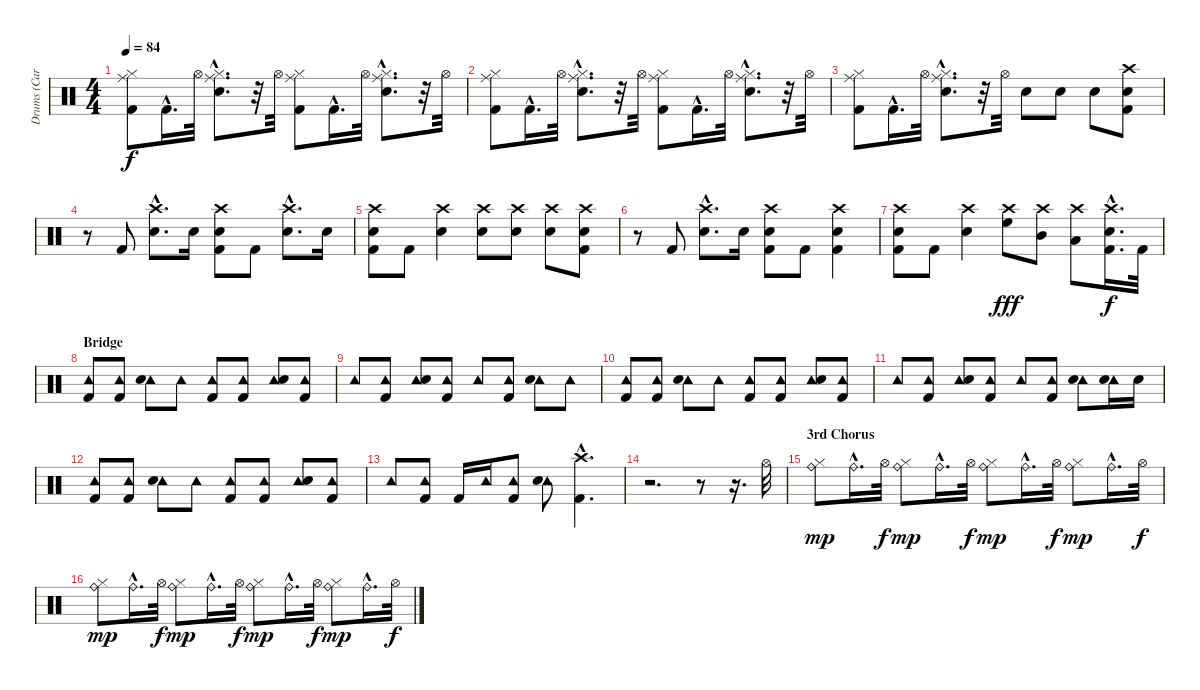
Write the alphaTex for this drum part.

\track ("Drums (Carter Beauford)" "Drums (Car") {instrument percussion}
\staff {score}
\articulation defaults
\ts (4 4)
\tempo 84
\clef neutral
\ks c
("Ride (middle)" "Hi-Hat (closed)" "Kick (hit) 2").8{dy f} "Kick (hit) 2"{hac}.16{d} "Hi-Hat (open)".32 ("Ride (middle)"{hac} "Hi-Hat (closed)"{hac} "Snare (hit) 2"{hac}).8{d} r.32 "Hi-Hat (open)".32 ("Ride (middle)" "Hi-Hat (closed)" "Kick (hit) 2").8 "Kick (hit) 2"{hac}.16{d} "Hi-Hat (open)".32 ("Ride (middle)"{hac} "Hi-Hat (closed)"{hac} "Snare (hit) 2"{hac}).8{d} r.32 "Hi-Hat (open)".32 |
("Ride (middle)" "Hi-Hat (closed)" "Kick (hit) 2").8 "Kick (hit) 2"{hac}.16{d} "Hi-Hat (open)".32 ("Ride (middle)"{hac} "Hi-Hat (closed)"{hac} "Snare (hit) 2"{hac}).8{d} r.32 "Hi-Hat (open)".32 ("Ride (middle)" "Hi-Hat (closed)" "Kick (hit) 2").8 "Kick (hit) 2"{hac}.16{d} "Hi-Hat (open)".32 ("Ride (middle)"{hac} "Hi-Hat (closed)"{hac} "Snare (hit) 2"{hac}).8{d} r.32 "Hi-Hat (open)".32 |
("Ride (middle)" "Hi-Hat (closed)" "Kick (hit) 2").8 "Kick (hit) 2"{hac}.16{d} "Hi-Hat (open)".32 ("Ride (middle)"{hac} "Hi-Hat (closed)"{hac} "Snare (hit) 2"{hac}).8{d} r.32 "Hi-Hat (open)".32 "Snare (hit) 2".8 "Snare (hit) 2".8 "Snare (hit) 2".8 ("Crash high (hit)" "Snare (hit) 2" "Kick (hit) 2").8 |
r.8 "Kick (hit) 2".8 ("Crash high (hit)"{hac} "Snare (hit) 2"{hac}).8{d} "Snare (hit) 2".16 ("Crash high (hit)" "Snare (hit) 2" "Kick (hit) 2").8 "Kick (hit) 2".8 ("Crash high (hit)"{hac} "Snare (hit) 2"{hac}).8{d} "Snare (hit) 2".16 |
("Crash high (hit)" "Snare (hit) 2" "Kick (hit) 2").8 "Kick (hit) 2".8 ("Crash high (hit)" "Snare (hit) 2").4 ("Crash high (hit)" "Snare (hit) 2").8 ("Crash high (hit)" "Snare (hit) 2").8 ("Crash high (hit)" "Snare (hit) 2").8 ("Crash high (hit)" "Snare (hit) 2" "Kick (hit) 2").8 |
r.8 "Kick (hit) 2".8 ("Crash high (hit)"{hac} "Snare (hit) 2"{hac}).8{d} "Snare (hit) 2".16 ("Crash high (hit)" "Snare (hit) 2" "Kick (hit) 2").8 "Kick (hit) 2".8 ("Crash high (hit)" "Snare (hit) 2" "Kick (hit) 2").4 |
("Crash high (hit)" "Snare (hit) 2" "Kick (hit) 2").8 "Kick (hit) 2".8 ("Crash high (hit)" "Snare (hit) 2").4 ("Crash high (hit)" "High Floor Tom (hit)").8{dy fff} ("Crash high (hit)" "Mid Tom (hit)").8 ("Crash high (hit)" "Low Tom (hit)").8 ("Crash high (hit)"{hac} "Snare (hit) 2"{hac} "Kick (hit) 2"{hac}).16{d dy f} "Kick (hit) 2".32 |
\section ("" "Bridge")
("Tambourine (hit)" "Kick (hit) 2").8 ("Tambourine (hit)" "Kick (hit) 2").8 ("Tambourine (hit)" "Snare (hit) 2").8 "Tambourine (hit)".8 ("Tambourine (hit)" "Kick (hit) 2").8 ("Tambourine (hit)" "Kick (hit) 2").8 ("Tambourine (hit)" "Snare (hit) 2").8 ("Tambourine (hit)" "Kick (hit) 2").8 |
"Tambourine (hit)".8 ("Tambourine (hit)" "Kick (hit) 2").8 ("Tambourine (hit)" "Snare (hit) 2").8 ("Tambourine (hit)" "Kick (hit) 2").8 "Tambourine (hit)".8 ("Tambourine (hit)" "Kick (hit) 2").8 ("Tambourine (hit)" "Snare (hit) 2").8 "Tambourine (hit)".8 |
("Tambourine (hit)" "Kick (hit) 2").8 ("Tambourine (hit)" "Kick (hit) 2").8 ("Tambourine (hit)" "Snare (hit) 2").8 "Tambourine (hit)".8 ("Tambourine (hit)" "Kick (hit) 2").8 ("Tambourine (hit)" "Kick (hit) 2").8 ("Tambourine (hit)" "Snare (hit) 2").8 ("Tambourine (hit)" "Kick (hit) 2").8 |
"Tambourine (hit)".8 ("Tambourine (hit)" "Kick (hit) 2").8 ("Tambourine (hit)" "Snare (hit) 2").8 ("Tambourine (hit)" "Kick (hit) 2").8 "Tambourine (hit)".8 ("Tambourine (hit)" "Kick (hit) 2").8 ("Tambourine (hit)" "Snare (hit) 2").8 ("Tambourine (hit)" "Snare (hit) 2").16 "Snare (hit) 2".16 |
("Tambourine (hit)" "Kick (hit) 2").8 ("Tambourine (hit)" "Kick (hit) 2").8 ("Tambourine (hit)" "Snare (hit) 2").8 "Tambourine (hit)".8 ("Tambourine (hit)" "Kick (hit) 2").8 ("Tambourine (hit)" "Kick (hit) 2").8 ("Tambourine (hit)" "Snare (hit) 2").8 ("Tambourine (hit)" "Kick (hit) 2").8 |
"Tambourine (hit)".8 ("Tambourine (hit)" "Kick (hit) 2").8 "Kick (hit) 2".16 "Tambourine (hit)".16 ("Tambourine (hit)" "Kick (hit) 2").8 ("Tambourine (hit)" "Snare (hit) 2").8 ("Crash high (hit)"{hac} "Kick (hit) 2"{hac}).4{d} |
r.2{d} r.8 r.16{d} "Hi-Hat (open)".32 |
\section ("" "3rd Chorus")
("Ride (bell)" "Hi-Hat (closed)").8{dy mp} "Ride (bell)"{hac}.16{d} "Hi-Hat (open)".32{dy f} ("Ride (bell)" "Hi-Hat (closed)").8{dy mp} "Ride (bell)"{hac}.16{d} "Hi-Hat (open)".32{dy f} ("Ride (bell)" "Hi-Hat (closed)").8{dy mp} "Ride (bell)"{hac}.16{d} "Hi-Hat (open)".32{dy f} ("Ride (bell)" "Hi-Hat (closed)").8{dy mp} "Ride (bell)"{hac}.16{d} "Hi-Hat (open)".32{dy f} |
("Ride (bell)" "Hi-Hat (closed)").8{dy mp} "Ride (bell)"{hac}.16{d} "Hi-Hat (open)".32{dy f} ("Ride (bell)" "Hi-Hat (closed)").8{dy mp} "Ride (bell)"{hac}.16{d} "Hi-Hat (open)".32{dy f} ("Ride (bell)" "Hi-Hat (closed)").8{dy mp} "Ride (bell)"{hac}.16{d} "Hi-Hat (open)".32{dy f} ("Ride (bell)" "Hi-Hat (closed)").8{dy mp} "Ride (bell)"{hac}.16{d} "Hi-Hat (open)".32{dy f}
